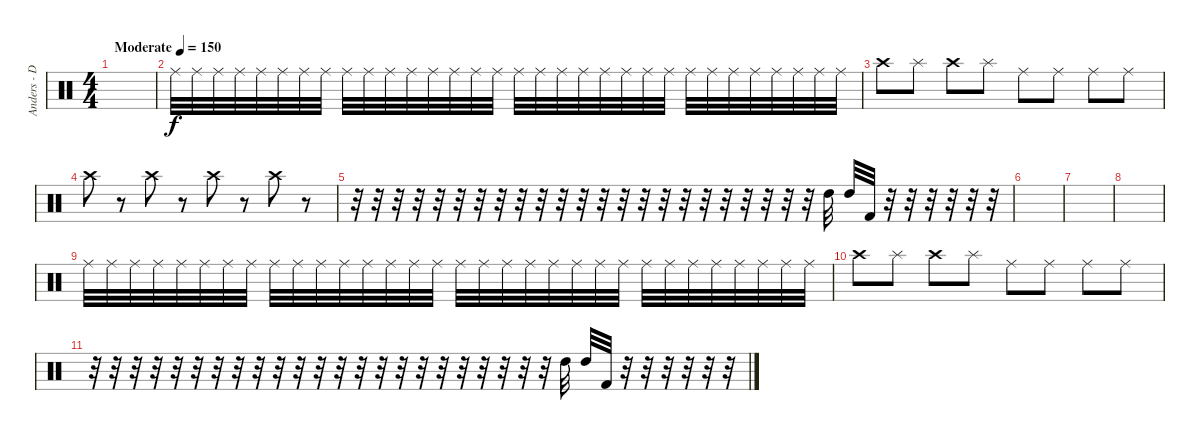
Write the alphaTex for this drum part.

\track ("Anders - Drums" "Anders - D") {instrument percussion}
\staff {score}
\articulation defaults
\ts (4 4)
\tempo (150 "Moderate")
\clef neutral
\ks c
|
"Ride (middle)".32 "Ride (middle)".32 "Ride (middle)".32 "Ride (middle)".32 "Ride (middle)".32 "Ride (middle)".32 "Ride (middle)".32 "Ride (middle)".32 "Ride (middle)".32 "Ride (middle)".32 "Ride (middle)".32 "Ride (middle)".32 "Ride (middle)".32 "Ride (middle)".32 "Ride (middle)".32 "Ride (middle)".32 "Ride (middle)".32 "Ride (middle)".32 "Ride (middle)".32 "Ride (middle)".32 "Ride (middle)".32 "Ride (middle)".32 "Ride (middle)".32 "Ride (middle)".32 "Ride (middle)".32 "Ride (middle)".32 "Ride (middle)".32 "Ride (middle)".32 "Ride (middle)".32 "Ride (middle)".32 "Ride (middle)".32 "Ride (middle)".32 |
"Crash high (hit)".8 "Splash (hit)".8 "Crash high (hit)".8 "Splash (hit)".8 "Ride (middle)".8 "Ride (middle)".8 "Ride (middle)".8 "Ride (middle)".8 |
"Crash high (hit)".8 r.8 "Crash high (hit)".8 r.8 "Crash high (hit)".8 r.8 "Crash high (hit)".8 r.8 |
r.32 r.32 r.32 r.32 r.32 r.32 r.32 r.32 r.32 r.32 r.32 r.32 r.32 r.32 r.32 r.32 r.32 r.32 r.32 r.32 r.32 r.32 r.32 "High Tom (hit)".32 "High Tom (hit)".32 "Kick (hit) 2".32 r.32 r.32 r.32 r.32 r.32 r.32 |
|
|
|
"Ride (middle)".32 "Ride (middle)".32 "Ride (middle)".32 "Ride (middle)".32 "Ride (middle)".32 "Ride (middle)".32 "Ride (middle)".32 "Ride (middle)".32 "Ride (middle)".32 "Ride (middle)".32 "Ride (middle)".32 "Ride (middle)".32 "Ride (middle)".32 "Ride (middle)".32 "Ride (middle)".32 "Ride (middle)".32 "Ride (middle)".32 "Ride (middle)".32 "Ride (middle)".32 "Ride (middle)".32 "Ride (middle)".32 "Ride (middle)".32 "Ride (middle)".32 "Ride (middle)".32 "Ride (middle)".32 "Ride (middle)".32 "Ride (middle)".32 "Ride (middle)".32 "Ride (middle)".32 "Ride (middle)".32 "Ride (middle)".32 "Ride (middle)".32 |
"Crash high (hit)".8 "Splash (hit)".8 "Crash high (hit)".8 "Splash (hit)".8 "Ride (middle)".8 "Ride (middle)".8 "Ride (middle)".8 "Ride (middle)".8 |
r.32 r.32 r.32 r.32 r.32 r.32 r.32 r.32 r.32 r.32 r.32 r.32 r.32 r.32 r.32 r.32 r.32 r.32 r.32 r.32 r.32 r.32 r.32 "High Tom (hit)".32 "High Tom (hit)".32 "Kick (hit) 2".32 r.32 r.32 r.32 r.32 r.32 r.32
